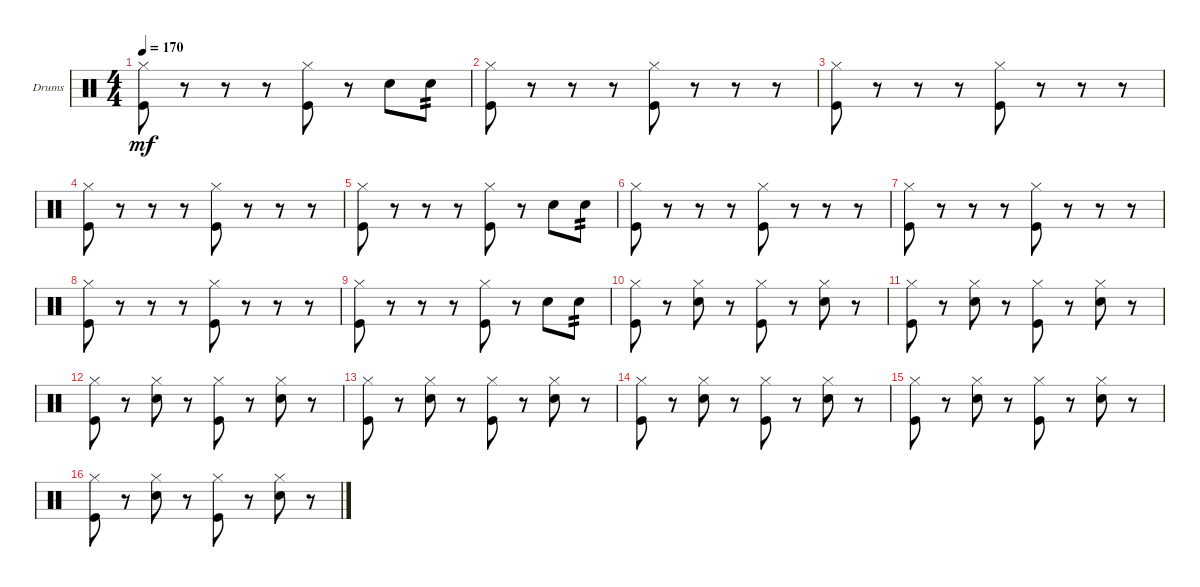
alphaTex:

\defaultSystemsLayout 4
\bracketExtendMode groupsimilarinstruments
\firstSystemTrackNameOrientation horizontal
\otherSystemsTrackNameOrientation horizontal
\track ("Drumkit" "Drums") {instrument percussion}
\staff {score}
\articulation defaults
\ts (4 4)
\tempo 170
\clef neutral
\ks c
("Kick (hit)" "Hi-Hat (closed)").8{dy mf} r.8 r.8 r.8 ("Kick (hit)" "Hi-Hat (closed)").8 r.8 "Snare (hit) 2".8 "Snare (hit) 2".8{tp 2} |
("Kick (hit)" "Hi-Hat (closed)").8 r.8 r.8 r.8 ("Kick (hit)" "Hi-Hat (closed)").8 r.8 r.8 r.8 |
("Kick (hit)" "Hi-Hat (closed)").8 r.8 r.8 r.8 ("Kick (hit)" "Hi-Hat (closed)").8 r.8 r.8 r.8 |
("Kick (hit)" "Hi-Hat (closed)").8 r.8 r.8 r.8 ("Kick (hit)" "Hi-Hat (closed)").8 r.8 r.8 r.8 |
("Kick (hit)" "Hi-Hat (closed)").8 r.8 r.8 r.8 ("Kick (hit)" "Hi-Hat (closed)").8 r.8 "Snare (hit) 2".8 "Snare (hit) 2".8{tp 2} |
("Kick (hit)" "Hi-Hat (closed)").8 r.8 r.8 r.8 ("Kick (hit)" "Hi-Hat (closed)").8 r.8 r.8 r.8 |
("Kick (hit)" "Hi-Hat (closed)").8 r.8 r.8 r.8 ("Kick (hit)" "Hi-Hat (closed)").8 r.8 r.8 r.8 |
("Kick (hit)" "Hi-Hat (closed)").8 r.8 r.8 r.8 ("Kick (hit)" "Hi-Hat (closed)").8 r.8 r.8 r.8 |
("Kick (hit)" "Hi-Hat (closed)").8 r.8 r.8 r.8 ("Kick (hit)" "Hi-Hat (closed)").8 r.8 "Snare (hit) 2".8 "Snare (hit) 2".8{tp 2} |
("Kick (hit)" "Hi-Hat (closed)").8 r.8 ("Snare (hit) 2" "Hi-Hat (closed)").8 r.8 ("Kick (hit)" "Hi-Hat (closed)").8 r.8 ("Snare (hit) 2" "Hi-Hat (closed)").8 r.8 |
("Kick (hit)" "Hi-Hat (closed)").8 r.8 ("Snare (hit) 2" "Hi-Hat (closed)").8 r.8 ("Kick (hit)" "Hi-Hat (closed)").8 r.8 ("Snare (hit) 2" "Hi-Hat (closed)").8 r.8 |
("Kick (hit)" "Hi-Hat (closed)").8 r.8 ("Snare (hit) 2" "Hi-Hat (closed)").8 r.8 ("Kick (hit)" "Hi-Hat (closed)").8 r.8 ("Snare (hit) 2" "Hi-Hat (closed)").8 r.8 |
("Kick (hit)" "Hi-Hat (closed)").8 r.8 ("Snare (hit) 2" "Hi-Hat (closed)").8 r.8 ("Kick (hit)" "Hi-Hat (closed)").8 r.8 ("Snare (hit) 2" "Hi-Hat (closed)").8 r.8 |
("Kick (hit)" "Hi-Hat (closed)").8 r.8 ("Snare (hit) 2" "Hi-Hat (closed)").8 r.8 ("Kick (hit)" "Hi-Hat (closed)").8 r.8 ("Snare (hit) 2" "Hi-Hat (closed)").8 r.8 |
("Kick (hit)" "Hi-Hat (closed)").8 r.8 ("Snare (hit) 2" "Hi-Hat (closed)").8 r.8 ("Kick (hit)" "Hi-Hat (closed)").8 r.8 ("Snare (hit) 2" "Hi-Hat (closed)").8 r.8 |
("Kick (hit)" "Hi-Hat (closed)").8 r.8 ("Snare (hit) 2" "Hi-Hat (closed)").8 r.8 ("Kick (hit)" "Hi-Hat (closed)").8 r.8 ("Snare (hit) 2" "Hi-Hat (closed)").8 r.8
